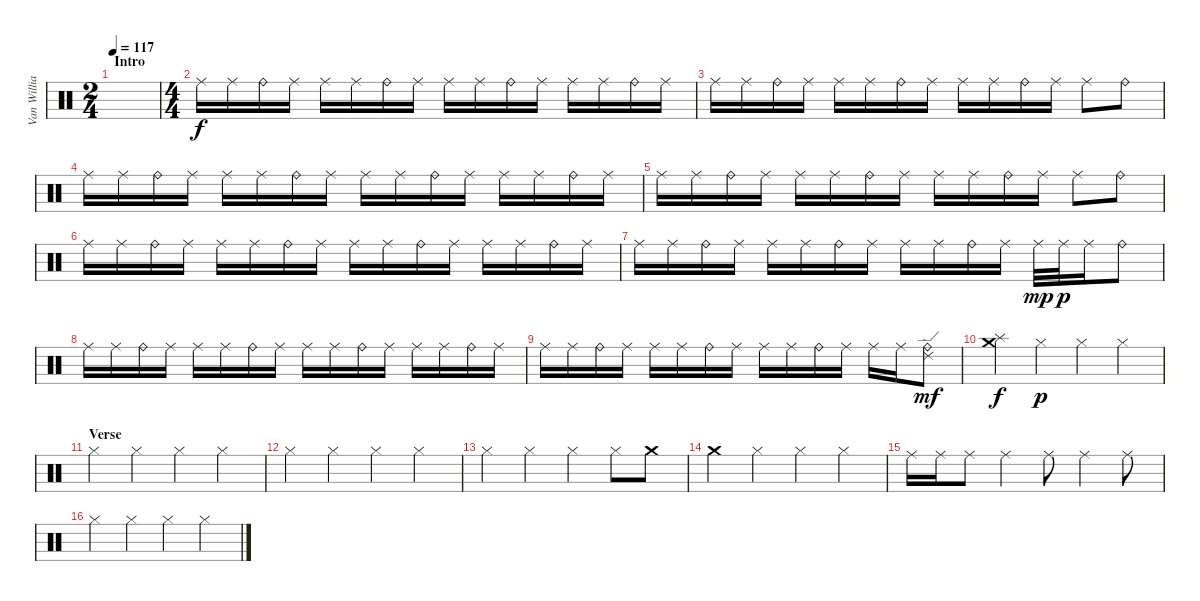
\track ("Van Williams" "Van Willia") {instrument percussion}
\staff {score}
\articulation defaults
\ts (2 4)
\section ("" "Intro")
\tempo 117
\clef neutral
\ks c
|
\ts (4 4)
"Ride (middle)".16 "Ride (middle)".16 "Ride (bell)".16 "Ride (middle)".16 "Ride (middle)".16 "Ride (middle)".16 "Ride (bell)".16 "Ride (middle)".16 "Ride (middle)".16 "Ride (middle)".16 "Ride (bell)".16 "Ride (middle)".16 "Ride (middle)".16 "Ride (middle)".16 "Ride (bell)".16 "Ride (middle)".16 |
"Ride (middle)".16 "Ride (middle)".16 "Ride (bell)".16 "Ride (middle)".16 "Ride (middle)".16 "Ride (middle)".16 "Ride (bell)".16 "Ride (middle)".16 "Ride (middle)".16 "Ride (middle)".16 "Ride (bell)".16 "Ride (middle)".16 "Ride (middle)".8 "Ride (bell)".8 |
"Ride (middle)".16 "Ride (middle)".16 "Ride (bell)".16 "Ride (middle)".16 "Ride (middle)".16 "Ride (middle)".16 "Ride (bell)".16 "Ride (middle)".16 "Ride (middle)".16 "Ride (middle)".16 "Ride (bell)".16 "Ride (middle)".16 "Ride (middle)".16 "Ride (middle)".16 "Ride (bell)".16 "Ride (middle)".16 |
"Ride (middle)".16 "Ride (middle)".16 "Ride (bell)".16 "Ride (middle)".16 "Ride (middle)".16 "Ride (middle)".16 "Ride (bell)".16 "Ride (middle)".16 "Ride (middle)".16 "Ride (middle)".16 "Ride (bell)".16 "Ride (middle)".16 "Ride (middle)".8 "Ride (bell)".8 |
"Ride (middle)".16 "Ride (middle)".16 "Ride (bell)".16 "Ride (middle)".16 "Ride (middle)".16 "Ride (middle)".16 "Ride (bell)".16 "Ride (middle)".16 "Ride (middle)".16 "Ride (middle)".16 "Ride (bell)".16 "Ride (middle)".16 "Ride (middle)".16 "Ride (middle)".16 "Ride (bell)".16 "Ride (middle)".16 |
"Ride (middle)".16 "Ride (middle)".16 "Ride (bell)".16 "Ride (middle)".16 "Ride (middle)".16 "Ride (middle)".16 "Ride (bell)".16 "Ride (middle)".16 "Ride (middle)".16 "Ride (middle)".16 "Ride (bell)".16 "Ride (middle)".16 "Ride (middle)".32{dy mp} "Ride (middle)".32{dy p} "Ride (middle)".16 "Ride (bell)".8 |
"Ride (middle)".16 "Ride (middle)".16 "Ride (bell)".16 "Ride (middle)".16 "Ride (middle)".16 "Ride (middle)".16 "Ride (bell)".16 "Ride (middle)".16 "Ride (middle)".16 "Ride (middle)".16 "Ride (bell)".16 "Ride (middle)".16 "Ride (middle)".16 "Ride (middle)".16 "Ride (bell)".16 "Ride (middle)".16 |
"Ride (middle)".16 "Ride (middle)".16 "Ride (bell)".16 "Ride (middle)".16 "Ride (middle)".16 "Ride (middle)".16 "Ride (bell)".16 "Ride (middle)".16 "Ride (middle)".16 "Ride (middle)".16 "Ride (bell)".16 "Ride (middle)".16 "Ride (middle)".16 "Ride (middle)".16 ("Ride (bell)" "Ride (edge) 2").8{dy mf} |
("Crash medium (hit)" "Splash (hit)").4{dy f} "Hi-Hat (closed)".4{dy p} "Hi-Hat (closed)".4 "Hi-Hat (closed)".4 |
\section ("" "Verse")
"Hi-Hat (closed)".4 "Hi-Hat (closed)".4 "Hi-Hat (closed)".4 "Hi-Hat (closed)".4 |
"Hi-Hat (closed)".4 "Hi-Hat (closed)".4 "Hi-Hat (closed)".4 "Hi-Hat (closed)".4 |
"Hi-Hat (closed)".4 "Hi-Hat (closed)".4 "Hi-Hat (closed)".4 "Hi-Hat (closed)".8 "Crash medium (hit)".8 |
"Crash medium (hit)".4 "Hi-Hat (closed)".4 "Hi-Hat (closed)".4 "Hi-Hat (closed)".4 |
"Ride (middle)".16 "Ride (middle)".16 "Ride (middle)".8 "Ride (middle)".4 "Ride (middle)".8 "Ride (middle)".4 "Ride (middle)".8 |
"Hi-Hat (closed)".4 "Hi-Hat (closed)".4 "Hi-Hat (closed)".4 "Hi-Hat (closed)".4
